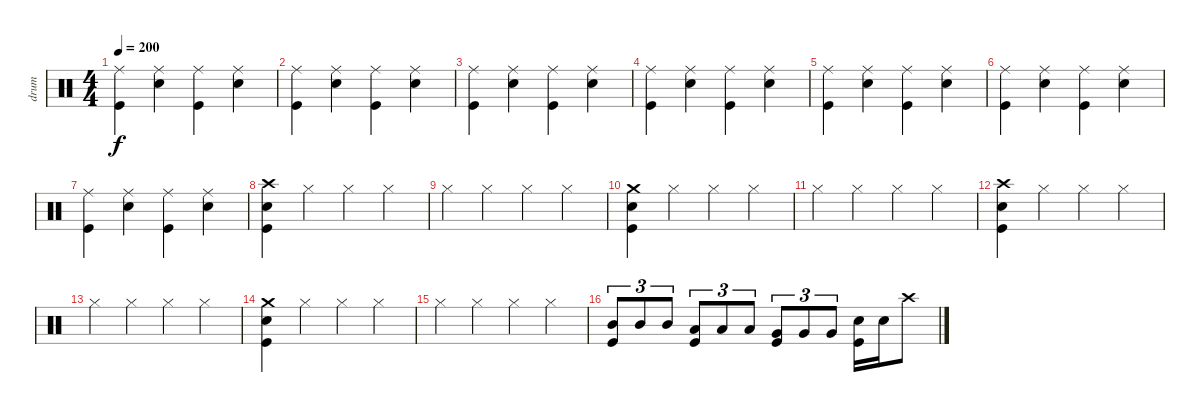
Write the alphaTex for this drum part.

\track ("drum" "drum") {instrument percussion}
\staff {score}
\articulation defaults
\ts (4 4)
\tempo 200
\clef neutral
\ks c
("Ride (middle)" "Kick (hit)").4{dy f} ("Ride (middle)" "Snare (hit) 2").4 ("Ride (middle)" "Kick (hit)").4 ("Ride (middle)" "Snare (hit) 2").4 |
("Ride (middle)" "Kick (hit)").4 ("Ride (middle)" "Snare (hit) 2").4 ("Ride (middle)" "Kick (hit)").4 ("Ride (middle)" "Snare (hit) 2").4 |
("Ride (middle)" "Kick (hit)").4 ("Ride (middle)" "Snare (hit) 2").4 ("Ride (middle)" "Kick (hit)").4 ("Ride (middle)" "Snare (hit) 2").4 |
("Ride (middle)" "Kick (hit)").4 ("Ride (middle)" "Snare (hit) 2").4 ("Ride (middle)" "Kick (hit)").4 ("Ride (middle)" "Snare (hit) 2").4 |
("Ride (middle)" "Kick (hit)").4 ("Ride (middle)" "Snare (hit) 2").4 ("Ride (middle)" "Kick (hit)").4 ("Ride (middle)" "Snare (hit) 2").4 |
("Ride (middle)" "Kick (hit)").4 ("Ride (middle)" "Snare (hit) 2").4 ("Ride (middle)" "Kick (hit)").4 ("Ride (middle)" "Snare (hit) 2").4 |
("Ride (middle)" "Kick (hit)").4 ("Ride (middle)" "Snare (hit) 2").4 ("Ride (middle)" "Kick (hit)").4 ("Ride (middle)" "Snare (hit) 2").4 |
("Crash high (hit)" "Snare (hit) 2" "Kick (hit)").4 "Hi-Hat (closed)".4 "Hi-Hat (closed)".4 "Hi-Hat (closed)".4 |
"Hi-Hat (closed)".4 "Hi-Hat (closed)".4 "Hi-Hat (closed)".4 "Hi-Hat (closed)".4 |
("Crash medium (hit)" "Snare (hit) 2" "Kick (hit)").4 "Hi-Hat (closed)".4 "Hi-Hat (closed)".4 "Hi-Hat (closed)".4 |
"Hi-Hat (closed)".4 "Hi-Hat (closed)".4 "Hi-Hat (closed)".4 "Hi-Hat (closed)".4 |
("Crash high (hit)" "Snare (hit) 2" "Kick (hit)").4 "Hi-Hat (closed)".4 "Hi-Hat (closed)".4 "Hi-Hat (closed)".4 |
"Hi-Hat (closed)".4 "Hi-Hat (closed)".4 "Hi-Hat (closed)".4 "Hi-Hat (closed)".4 |
("Crash medium (hit)" "Snare (hit) 2" "Kick (hit)").4 "Hi-Hat (closed)".4 "Hi-Hat (closed)".4 "Hi-Hat (closed)".4 |
"Hi-Hat (closed)".4 "Hi-Hat (closed)".4 "Hi-Hat (closed)".4 "Hi-Hat (closed)".4 |
("Mid Tom (hit)" "Kick (hit)").8{tu (3 2)} "Mid Tom (hit)".8{tu (3 2)} "Mid Tom (hit)".8{tu (3 2)} ("Low Tom (hit)" "Kick (hit)").8{tu (3 2)} "Low Tom (hit)".8{tu (3 2)} "Low Tom (hit)".8{tu (3 2)} ("Very Low Tom (hit)" "Kick (hit)").8{tu (3 2)} "Very Low Tom (hit)".8{tu (3 2)} "Very Low Tom (hit)".8{tu (3 2)} ("Snare (hit) 2" "Kick (hit)").16 "Snare (hit) 2".16 "Crash high (hit)".8
